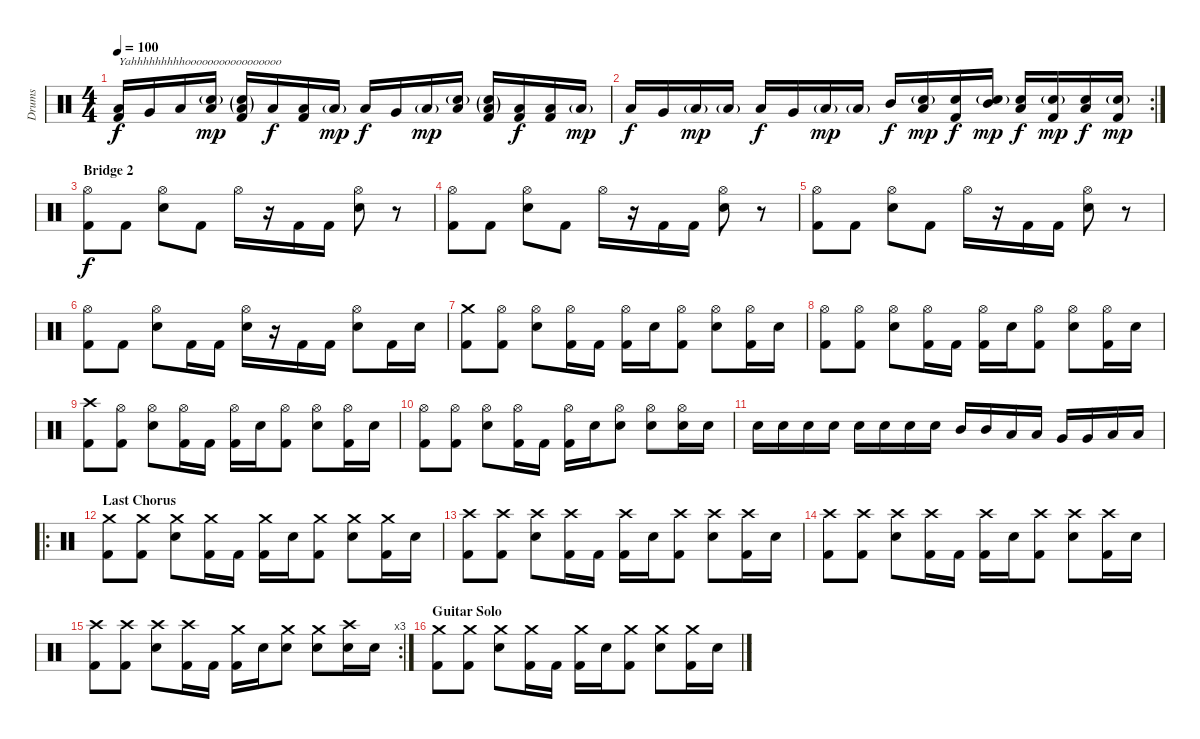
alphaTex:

\track ("Drums" "Drums") {instrument percussion}
\staff {score}
\articulation defaults
\ts (4 4)
\tempo 100
\clef neutral
\ks c
("Kick (hit) 2" "Low Tom (hit)").16{txt "Yahhhhhhhhhooooooooooooooooo" dy f volume 14} "Very Low Tom (hit)".16 "Low Floor Tom (hit)".16 ("Snare (hit) 2"{g} "Low Floor Tom (hit)").16{dy mp} ("Kick (hit) 2" "Snare (hit) 2"{g} "Low Floor Tom (hit)"{g}).16 "Low Floor Tom (hit)".16{dy f} ("Kick (hit) 2" "Low Floor Tom (hit)").16 "Low Floor Tom (hit)"{g}.16{dy mp} "Low Tom (hit)".16{dy f} "Very Low Tom (hit)".16 "Low Floor Tom (hit)"{g}.16{dy mp} ("Snare (hit) 2"{g} "Low Floor Tom (hit)").16 ("Kick (hit) 2" "Snare (hit) 2"{g} "Low Floor Tom (hit)"{g}).16 ("Kick (hit) 2" "Low Floor Tom (hit)").16{dy f} ("Kick (hit) 2" "Low Floor Tom (hit)").16 "Low Floor Tom (hit)"{g}.16{dy mp} |
\rc 2 "Low Tom (hit)".16{dy f volume 16} "Very Low Tom (hit)".16 "Low Floor Tom (hit)"{g}.16{dy mp} "Low Floor Tom (hit)"{g}.16 "Low Tom (hit)".16{dy f} "Very Low Tom (hit)".16 "Low Floor Tom (hit)"{g}.16{dy mp} "Low Floor Tom (hit)"{g}.16 "Mid Tom (hit)".16{dy f}
("Snare (hit) 2"{g} "Low Tom (hit)").16{dy mp} ("Snare (hit) 2" "Kick (hit) 2").16{dy f} ("Snare (hit) 2"{g} "Mid Tom (hit)").16{dy mp} ("Snare (hit) 2" "Low Floor Tom (hit)").16{dy f} ("Snare (hit) 2"{g} "Kick (hit) 2").16{dy mp} ("Snare (hit) 2" "Low Floor Tom (hit)").16{dy f} ("Snare (hit) 2"{g} "Kick (hit) 2").16{dy mp} |
\section ("" "Bridge 2")
("Hi-Hat (open)" "Kick (hit) 2").8{dy f} "Kick (hit) 2".8 ("Hi-Hat (open)" "Snare (hit) 2").8 "Kick (hit) 2".8 "Hi-Hat (open)".16 r.16 "Kick (hit) 2".16 "Kick (hit) 2".16 ("Hi-Hat (open)" "Snare (hit) 2").8 r.8 |
("Hi-Hat (open)" "Kick (hit) 2").8 "Kick (hit) 2".8 ("Hi-Hat (open)" "Snare (hit) 2").8 "Kick (hit) 2".8 "Hi-Hat (open)".16 r.16 "Kick (hit) 2".16 "Kick (hit) 2".16 ("Hi-Hat (open)" "Snare (hit) 2").8 r.8 |
("Hi-Hat (open)" "Kick (hit) 2").8 "Kick (hit) 2".8 ("Hi-Hat (open)" "Snare (hit) 2").8 "Kick (hit) 2".8 "Hi-Hat (open)".16 r.16 "Kick (hit) 2".16 "Kick (hit) 2".16 ("Hi-Hat (open)" "Snare (hit) 2").8 r.8 |
("Hi-Hat (open)" "Kick (hit) 2").8 "Kick (hit) 2".8 ("Hi-Hat (open)" "Snare (hit) 2").8 "Kick (hit) 2".16 "Kick (hit) 2".16 ("Hi-Hat (open)" "Snare (hit) 2").16 r.16 "Kick (hit) 2".16 "Kick (hit) 2".16 ("Hi-Hat (open)" "Snare (hit) 2").8 "Kick (hit) 2".16 "Snare (hit) 2".16 |
("Crash medium (hit)" "Kick (hit) 2").8 ("Hi-Hat (open)" "Kick (hit) 2").8 ("Hi-Hat (open)" "Snare (hit) 2").8 ("Hi-Hat (open)" "Kick (hit) 2").16 "Kick (hit) 2".16 ("Hi-Hat (open)" "Kick (hit) 2").16 "Snare (hit) 2".16 ("Hi-Hat (open)" "Kick (hit) 2").8 ("Hi-Hat (open)" "Snare (hit) 2").8 ("Hi-Hat (open)" "Kick (hit) 2").16 "Snare (hit) 2".16 |
("Hi-Hat (open)" "Kick (hit) 2").8 ("Hi-Hat (open)" "Kick (hit) 2").8 ("Hi-Hat (open)" "Snare (hit) 2").8 ("Hi-Hat (open)" "Kick (hit) 2").16 "Kick (hit) 2".16 ("Hi-Hat (open)" "Kick (hit) 2").16 "Snare (hit) 2".16 ("Hi-Hat (open)" "Kick (hit) 2").8 ("Hi-Hat (open)" "Snare (hit) 2").8 ("Hi-Hat (open)" "Kick (hit) 2").16 "Snare (hit) 2".16 |
("Crash high (hit)" "Kick (hit) 2").8 ("Hi-Hat (open)" "Kick (hit) 2").8 ("Hi-Hat (open)" "Snare (hit) 2").8 ("Hi-Hat (open)" "Kick (hit) 2").16 "Kick (hit) 2".16 ("Hi-Hat (open)" "Kick (hit) 2").16 "Snare (hit) 2".16 ("Hi-Hat (open)" "Kick (hit) 2").8 ("Hi-Hat (open)" "Snare (hit) 2").8 ("Hi-Hat (open)" "Kick (hit) 2").16 "Snare (hit) 2".16 |
("Hi-Hat (open)" "Kick (hit) 2").8 ("Hi-Hat (open)" "Kick (hit) 2").8 ("Hi-Hat (open)" "Snare (hit) 2").8 ("Hi-Hat (open)" "Kick (hit) 2").16 "Kick (hit) 2".16 ("Hi-Hat (open)" "Kick (hit) 2").16 "Snare (hit) 2".16 ("Hi-Hat (open)" "Snare (hit) 2").8 ("Hi-Hat (open)" "Snare (hit) 2").8 ("Hi-Hat (open)" "Snare (hit) 2").16 "Snare (hit) 2".16 |
"Snare (hit) 2".16 "Snare (hit) 2".16 "Snare (hit) 2".16 "Snare (hit) 2".16 "Snare (hit) 2".16 "Snare (hit) 2".16 "Snare (hit) 2".16 "Snare (hit) 2".16 "Mid Tom (hit)".16 "Mid Tom (hit)".16 "Low Tom (hit)".16 "Low Tom (hit)".16 "Very Low Tom (hit)".16 "Very Low Tom (hit)".16 "Low Floor Tom (hit)".16 "Low Floor Tom (hit)".16 |
\ro
\section ("" "Last Chorus")
("Crash medium (hit)" "Kick (hit) 2").8 ("Crash medium (hit)" "Kick (hit) 2").8 ("Crash medium (hit)" "Snare (hit) 2").8 ("Crash medium (hit)" "Kick (hit) 2").16 "Kick (hit) 2".16 ("Crash medium (hit)" "Kick (hit) 2").16 "Snare (hit) 2".16 ("Crash medium (hit)" "Kick (hit) 2").8 ("Crash medium (hit)" "Snare (hit) 2").8 ("Crash medium (hit)" "Kick (hit) 2").16 "Snare (hit) 2".16 |
("Crash high (hit)" "Kick (hit) 2").8 ("Crash high (hit)" "Kick (hit) 2").8 ("Crash high (hit)" "Snare (hit) 2").8 ("Crash high (hit)" "Kick (hit) 2").16 "Kick (hit) 2".16 ("Crash high (hit)" "Kick (hit) 2").16 "Snare (hit) 2".16 ("Crash high (hit)" "Kick (hit) 2").8 ("Crash high (hit)" "Snare (hit) 2").8 ("Crash high (hit)" "Kick (hit) 2").16 "Snare (hit) 2".16 |
("Crash high (hit)" "Kick (hit) 2").8 ("Crash high (hit)" "Kick (hit) 2").8 ("Crash high (hit)" "Snare (hit) 2").8 ("Crash high (hit)" "Kick (hit) 2").16 "Kick (hit) 2".16 ("Crash high (hit)" "Kick (hit) 2").16 "Snare (hit) 2".16 ("Crash high (hit)" "Kick (hit) 2").8 ("Crash high (hit)" "Snare (hit) 2").8 ("Crash high (hit)" "Kick (hit) 2").16 "Snare (hit) 2".16 |
\rc 3
("Crash high (hit)" "Kick (hit) 2").8 ("Crash high (hit)" "Kick (hit) 2").8 ("Crash high (hit)" "Snare (hit) 2").8 ("Crash high (hit)" "Kick (hit) 2").16 "Kick (hit) 2".16 ("Crash medium (hit)" "Kick (hit) 2").16 "Snare (hit) 2".16 ("Crash medium (hit)" "Snare (hit) 2").8 ("Crash medium (hit)" "Snare (hit) 2").8 ("Crash high (hit)" "Snare (hit) 2").16 "Snare (hit) 2".16 |
\section ("" "Guitar Solo")
("Crash medium (hit)" "Kick (hit) 2").8 ("Crash medium (hit)" "Kick (hit) 2").8 ("Crash medium (hit)" "Snare (hit) 2").8 ("Crash medium (hit)" "Kick (hit) 2").16 "Kick (hit) 2".16 ("Crash medium (hit)" "Kick (hit) 2").16 "Snare (hit) 2".16 ("Crash medium (hit)" "Kick (hit) 2").8 ("Crash medium (hit)" "Snare (hit) 2").8 ("Crash medium (hit)" "Kick (hit) 2").16 "Snare (hit) 2".16
